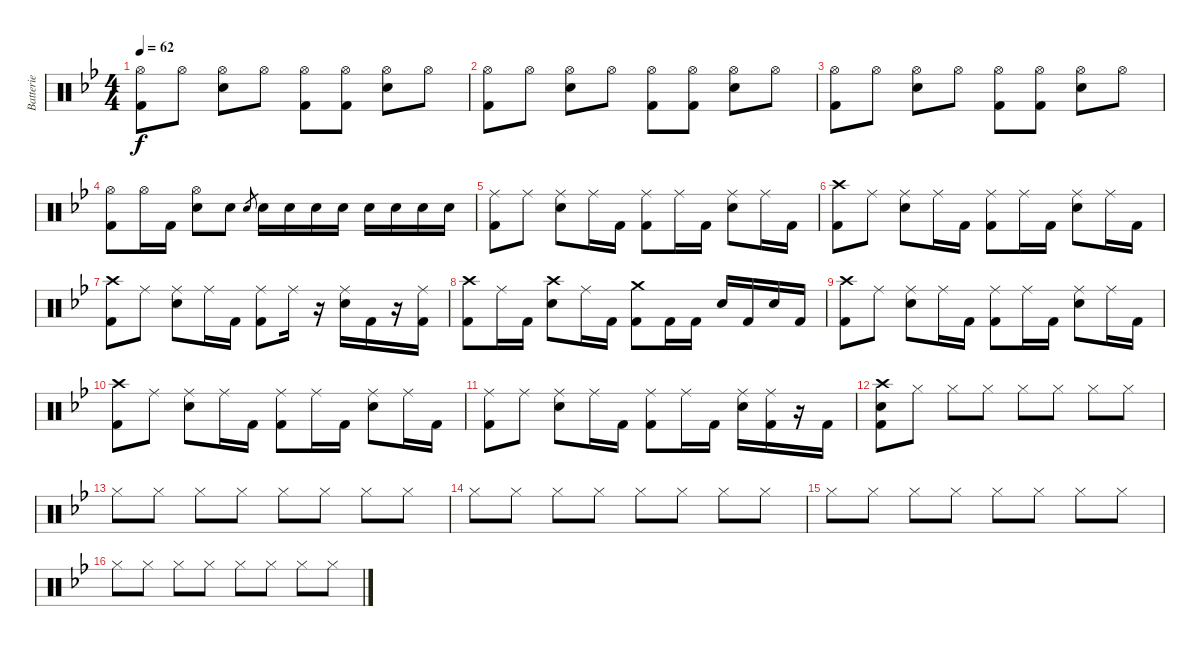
\track ("Batterie" "Batterie") {instrument percussion}
\staff {score}
\articulation defaults
\ts (4 4)
\tempo 62
\clef neutral
\ks bb
("Hi-Hat (open)" "Kick (hit) 2").8{dy f} "Hi-Hat (open)".8 ("Hi-Hat (open)" "Snare (hit) 2").8 "Hi-Hat (open)".8 ("Hi-Hat (open)" "Kick (hit) 2").8 ("Hi-Hat (open)" "Kick (hit) 2").8 ("Hi-Hat (open)" "Snare (hit) 2").8 "Hi-Hat (open)".8 |
("Hi-Hat (open)" "Kick (hit) 2").8 "Hi-Hat (open)".8 ("Hi-Hat (open)" "Snare (hit) 2").8 "Hi-Hat (open)".8 ("Hi-Hat (open)" "Kick (hit) 2").8 ("Hi-Hat (open)" "Kick (hit) 2").8 ("Hi-Hat (open)" "Snare (hit) 2").8 "Hi-Hat (open)".8 |
("Hi-Hat (open)" "Kick (hit) 2").8 "Hi-Hat (open)".8 ("Hi-Hat (open)" "Snare (hit) 2").8 "Hi-Hat (open)".8 ("Hi-Hat (open)" "Kick (hit) 2").8 ("Hi-Hat (open)" "Kick (hit) 2").8 ("Hi-Hat (open)" "Snare (hit) 2").8 "Hi-Hat (open)".8 |
("Hi-Hat (open)" "Kick (hit) 2").8 "Hi-Hat (open)".16 "Kick (hit) 2".16 ("Hi-Hat (open)" "Snare (hit) 2").8 "Snare (hit) 2".8 "Snare (hit) 2".8{gr} "Snare (hit) 2".16 "Snare (hit) 2".16 "Snare (hit) 2".16 "Snare (hit) 2".16 "Snare (hit) 2".16 "Snare (hit) 2".16 "Snare (hit) 2".16 "Snare (hit) 2".16 |
("Ride (middle)" "Kick (hit) 2").8 "Ride (middle)".8 ("Ride (middle)" "Snare (hit) 2").8 "Ride (middle)".16 "Kick (hit) 2".16 ("Ride (middle)" "Kick (hit) 2").8 "Ride (middle)".16 "Kick (hit) 2".16 ("Ride (middle)" "Snare (hit) 2").8 "Ride (middle)".16 "Kick (hit) 2".16 |
("Crash high (hit)" "Kick (hit) 2").8 "Ride (middle)".8 ("Ride (middle)" "Snare (hit) 2").8 "Ride (middle)".16 "Kick (hit) 2".16 ("Ride (middle)" "Kick (hit) 2").8 "Ride (middle)".16 "Kick (hit) 2".16 ("Ride (middle)" "Snare (hit) 2").8 "Ride (middle)".16 "Kick (hit) 2".16 |
("Crash high (hit)" "Kick (hit) 2").8 "Ride (middle)".8 ("Ride (middle)" "Snare (hit) 2").8 "Ride (middle)".16 "Kick (hit) 2".16 ("Ride (middle)" "Kick (hit) 2").8 "Ride (middle)".16 r.16 ("Ride (middle)" "Snare (hit) 2").16 "Kick (hit) 2".16 r.16 ("Ride (middle)" "Kick (hit) 2").16 |
("Crash high (hit)" "Kick (hit) 2").8 "Ride (middle)".16 "Kick (hit) 2".16 ("Crash high (hit)" "Snare (hit) 2").8 "Ride (middle)".16 "Kick (hit) 2".16 ("Crash medium (hit)" "Kick (hit) 2").8 "Kick (hit) 2".16 "Kick (hit) 2".16 "Snare (hit) 2".16 "Kick (hit) 2".16 "Snare (hit) 2".16 "Kick (hit) 2".16 |
("Crash high (hit)" "Kick (hit) 2").8 "Ride (middle)".8 ("Ride (middle)" "Snare (hit) 2").8 "Ride (middle)".16 "Kick (hit) 2".16 ("Ride (middle)" "Kick (hit) 2").8 "Ride (middle)".16 "Kick (hit) 2".16 ("Ride (middle)" "Snare (hit) 2").8 "Ride (middle)".16 "Kick (hit) 2".16 |
("Crash high (hit)" "Kick (hit) 2").8 "Ride (middle)".8 ("Ride (middle)" "Snare (hit) 2").8 "Ride (middle)".16 "Kick (hit) 2".16 ("Ride (middle)" "Kick (hit) 2").8 "Ride (middle)".16 "Kick (hit) 2".16 ("Ride (middle)" "Snare (hit) 2").8 "Ride (middle)".16 "Kick (hit) 2".16 |
("Ride (middle)" "Kick (hit) 2").8 "Ride (middle)".8 ("Ride (middle)" "Snare (hit) 2").8 "Ride (middle)".16 "Kick (hit) 2".16 ("Ride (middle)" "Kick (hit) 2").8 "Ride (middle)".16 "Kick (hit) 2".16 ("Ride (middle)" "Snare (hit) 2").16 ("Ride (middle)" "Kick (hit) 2").16 r.16 "Kick (hit) 2".16 |
("Crash high (hit)" "Snare (hit) 2" "Kick (hit) 2").8 "Hi-Hat (closed)".8 "Hi-Hat (closed)".8 "Hi-Hat (closed)".8 "Hi-Hat (closed)".8 "Hi-Hat (closed)".8 "Hi-Hat (closed)".8 "Hi-Hat (closed)".8 |
"Hi-Hat (closed)".8 "Hi-Hat (closed)".8 "Hi-Hat (closed)".8 "Hi-Hat (closed)".8 "Hi-Hat (closed)".8 "Hi-Hat (closed)".8 "Hi-Hat (closed)".8 "Hi-Hat (closed)".8 |
"Hi-Hat (closed)".8 "Hi-Hat (closed)".8 "Hi-Hat (closed)".8 "Hi-Hat (closed)".8 "Hi-Hat (closed)".8 "Hi-Hat (closed)".8 "Hi-Hat (closed)".8 "Hi-Hat (closed)".8 |
"Hi-Hat (closed)".8 "Hi-Hat (closed)".8 "Hi-Hat (closed)".8 "Hi-Hat (closed)".8 "Hi-Hat (closed)".8 "Hi-Hat (closed)".8 "Hi-Hat (closed)".8 "Hi-Hat (closed)".8 |
"Hi-Hat (closed)".8 "Hi-Hat (closed)".8 "Hi-Hat (closed)".8 "Hi-Hat (closed)".8 "Hi-Hat (closed)".8 "Hi-Hat (closed)".8 "Hi-Hat (closed)".8 "Hi-Hat (closed)".8
